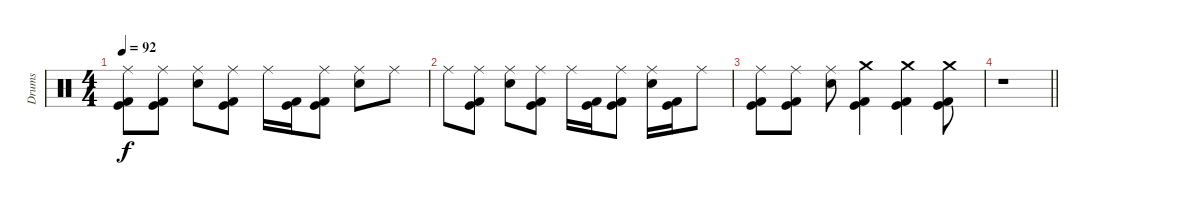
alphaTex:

\track ("Drums" "Drums") {instrument percussion}
\staff {score}
\articulation defaults
\ts (4 4)
\tempo 92
\clef neutral
\ks c
("Ride (middle)" "Kick (hit)" "Kick (hit) 2").8{dy f} ("Ride (middle)" "Kick (hit)" "Kick (hit) 2").8 ("Ride (middle)" "Electric Snare (hit)").8 ("Ride (middle)" "Kick (hit)" "Kick (hit) 2").8 "Ride (middle)".16 ("Kick (hit)" "Kick (hit) 2").16 ("Ride (middle)" "Kick (hit)" "Kick (hit) 2").8 ("Ride (middle)" "Electric Snare (hit)").8 "Ride (middle)".8 |
"Ride (middle)".8 ("Ride (middle)" "Kick (hit)" "Kick (hit) 2").8 ("Ride (middle)" "Electric Snare (hit)").8 ("Ride (middle)" "Kick (hit)" "Kick (hit) 2").8 "Ride (middle)".16 ("Kick (hit)" "Kick (hit) 2").16 ("Ride (middle)" "Kick (hit)" "Kick (hit) 2").8 ("Ride (middle)" "Electric Snare (hit)").16 ("Kick (hit)" "Kick (hit) 2").16 "Ride (middle)".8 |
("Ride (middle)" "Kick (hit)" "Kick (hit) 2").8 ("Ride (middle)" "Kick (hit)" "Kick (hit) 2").8 ("Ride (middle)" "Electric Snare (hit)").8 ("Crash medium (hit)" "Kick (hit)" "Kick (hit) 2").4 ("Crash medium (hit)" "Kick (hit)" "Kick (hit) 2").4 ("Crash medium (hit)" "Kick (hit)" "Kick (hit) 2").8 |
\barLineRight lightlight
r.1
